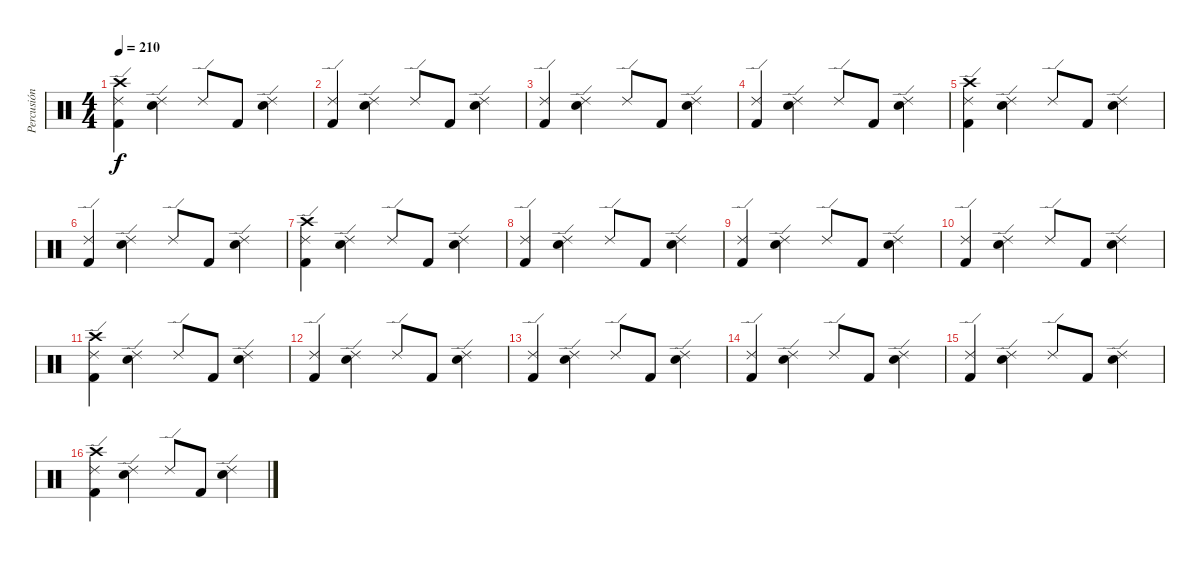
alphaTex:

\track ("Percusión" "Percusión") {instrument percussion}
\staff {score}
\articulation defaults
\ts (4 4)
\tempo 210
\clef neutral
\ks c
("Crash high (hit)" "Ride (edge) 2" "Kick (hit) 2").4{dy f} ("Ride (edge) 2" "Snare (hit) 2").4 "Ride (edge) 2".8 "Kick (hit) 2".8 ("Ride (edge) 2" "Snare (hit) 2").4 |
("Ride (edge) 2" "Kick (hit) 2").4 ("Ride (edge) 2" "Snare (hit) 2").4 "Ride (edge) 2".8 "Kick (hit) 2".8 ("Ride (edge) 2" "Snare (hit) 2").4 |
("Ride (edge) 2" "Kick (hit) 2").4 ("Ride (edge) 2" "Snare (hit) 2").4 "Ride (edge) 2".8 "Kick (hit) 2".8 ("Ride (edge) 2" "Snare (hit) 2").4 |
("Ride (edge) 2" "Kick (hit) 2").4 ("Ride (edge) 2" "Snare (hit) 2").4 "Ride (edge) 2".8 "Kick (hit) 2".8 ("Ride (edge) 2" "Snare (hit) 2").4 |
("Crash high (hit)" "Ride (edge) 2" "Kick (hit) 2").4 ("Ride (edge) 2" "Snare (hit) 2").4 "Ride (edge) 2".8 "Kick (hit) 2".8 ("Ride (edge) 2" "Snare (hit) 2").4 |
("Ride (edge) 2" "Kick (hit) 2").4 ("Ride (edge) 2" "Snare (hit) 2").4 "Ride (edge) 2".8 "Kick (hit) 2".8 ("Ride (edge) 2" "Snare (hit) 2").4 |
("Crash high (hit)" "Ride (edge) 2" "Kick (hit) 2").4 ("Ride (edge) 2" "Snare (hit) 2").4 "Ride (edge) 2".8 "Kick (hit) 2".8 ("Ride (edge) 2" "Snare (hit) 2").4 |
("Ride (edge) 2" "Kick (hit) 2").4 ("Ride (edge) 2" "Snare (hit) 2").4 "Ride (edge) 2".8 "Kick (hit) 2".8 ("Ride (edge) 2" "Snare (hit) 2").4 |
("Ride (edge) 2" "Kick (hit) 2").4 ("Ride (edge) 2" "Snare (hit) 2").4 "Ride (edge) 2".8 "Kick (hit) 2".8 ("Ride (edge) 2" "Snare (hit) 2").4 |
("Ride (edge) 2" "Kick (hit) 2").4 ("Ride (edge) 2" "Snare (hit) 2").4 "Ride (edge) 2".8 "Kick (hit) 2".8 ("Ride (edge) 2" "Snare (hit) 2").4 |
("Crash high (hit)" "Ride (edge) 2" "Kick (hit) 2").4 ("Ride (edge) 2" "Snare (hit) 2").4 "Ride (edge) 2".8 "Kick (hit) 2".8 ("Ride (edge) 2" "Snare (hit) 2").4 |
("Ride (edge) 2" "Kick (hit) 2").4 ("Ride (edge) 2" "Snare (hit) 2").4 "Ride (edge) 2".8 "Kick (hit) 2".8 ("Ride (edge) 2" "Snare (hit) 2").4 |
("Ride (edge) 2" "Kick (hit) 2").4 ("Ride (edge) 2" "Snare (hit) 2").4 "Ride (edge) 2".8 "Kick (hit) 2".8 ("Ride (edge) 2" "Snare (hit) 2").4 |
("Ride (edge) 2" "Kick (hit) 2").4 ("Ride (edge) 2" "Snare (hit) 2").4 "Ride (edge) 2".8 "Kick (hit) 2".8 ("Ride (edge) 2" "Snare (hit) 2").4 |
("Ride (edge) 2" "Kick (hit) 2").4 ("Ride (edge) 2" "Snare (hit) 2").4 "Ride (edge) 2".8 "Kick (hit) 2".8 ("Ride (edge) 2" "Snare (hit) 2").4 |
("Crash high (hit)" "Ride (edge) 2" "Kick (hit) 2").4 ("Ride (edge) 2" "Snare (hit) 2").4 "Ride (edge) 2".8 "Kick (hit) 2".8 ("Ride (edge) 2" "Snare (hit) 2").4
